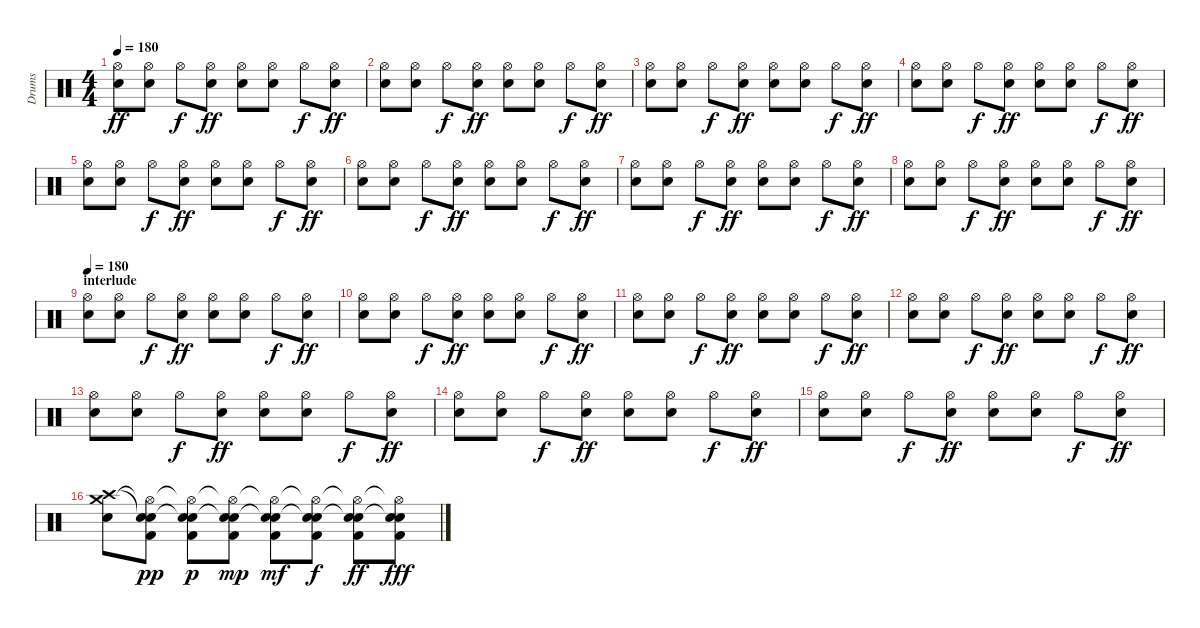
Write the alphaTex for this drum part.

\track ("Drums" "Drums") {instrument percussion}
\staff {score}
\articulation defaults
\ts (4 4)
\tempo 180
\clef neutral
\ks c
("Hi-Hat (open)" "Electric Snare (hit)").8{dy ff} ("Hi-Hat (open)" "Electric Snare (hit)").8 "Hi-Hat (open)".8{dy f} ("Hi-Hat (open)" "Electric Snare (hit)").8{dy ff} ("Hi-Hat (open)" "Electric Snare (hit)").8 ("Hi-Hat (open)" "Electric Snare (hit)").8 "Hi-Hat (open)".8{dy f} ("Hi-Hat (open)" "Electric Snare (hit)").8{dy ff} |
("Hi-Hat (open)" "Electric Snare (hit)").8 ("Hi-Hat (open)" "Electric Snare (hit)").8 "Hi-Hat (open)".8{dy f} ("Hi-Hat (open)" "Electric Snare (hit)").8{dy ff} ("Hi-Hat (open)" "Electric Snare (hit)").8 ("Hi-Hat (open)" "Electric Snare (hit)").8 "Hi-Hat (open)".8{dy f} ("Hi-Hat (open)" "Electric Snare (hit)").8{dy ff} |
("Hi-Hat (open)" "Electric Snare (hit)").8 ("Hi-Hat (open)" "Electric Snare (hit)").8 "Hi-Hat (open)".8{dy f} ("Hi-Hat (open)" "Electric Snare (hit)").8{dy ff} ("Hi-Hat (open)" "Electric Snare (hit)").8 ("Hi-Hat (open)" "Electric Snare (hit)").8 "Hi-Hat (open)".8{dy f} ("Hi-Hat (open)" "Electric Snare (hit)").8{dy ff} |
("Hi-Hat (open)" "Electric Snare (hit)").8 ("Hi-Hat (open)" "Electric Snare (hit)").8 "Hi-Hat (open)".8{dy f} ("Hi-Hat (open)" "Electric Snare (hit)").8{dy ff} ("Hi-Hat (open)" "Electric Snare (hit)").8 ("Hi-Hat (open)" "Electric Snare (hit)").8 "Hi-Hat (open)".8{dy f} ("Hi-Hat (open)" "Electric Snare (hit)").8{dy ff} |
("Hi-Hat (open)" "Electric Snare (hit)").8 ("Hi-Hat (open)" "Electric Snare (hit)").8 "Hi-Hat (open)".8{dy f} ("Hi-Hat (open)" "Electric Snare (hit)").8{dy ff} ("Hi-Hat (open)" "Electric Snare (hit)").8 ("Hi-Hat (open)" "Electric Snare (hit)").8 "Hi-Hat (open)".8{dy f} ("Hi-Hat (open)" "Electric Snare (hit)").8{dy ff} |
("Hi-Hat (open)" "Electric Snare (hit)").8 ("Hi-Hat (open)" "Electric Snare (hit)").8 "Hi-Hat (open)".8{dy f} ("Hi-Hat (open)" "Electric Snare (hit)").8{dy ff} ("Hi-Hat (open)" "Electric Snare (hit)").8 ("Hi-Hat (open)" "Electric Snare (hit)").8 "Hi-Hat (open)".8{dy f} ("Hi-Hat (open)" "Electric Snare (hit)").8{dy ff} |
("Hi-Hat (open)" "Electric Snare (hit)").8 ("Hi-Hat (open)" "Electric Snare (hit)").8 "Hi-Hat (open)".8{dy f} ("Hi-Hat (open)" "Electric Snare (hit)").8{dy ff} ("Hi-Hat (open)" "Electric Snare (hit)").8 ("Hi-Hat (open)" "Electric Snare (hit)").8 "Hi-Hat (open)".8{dy f} ("Hi-Hat (open)" "Electric Snare (hit)").8{dy ff} |
("Hi-Hat (open)" "Electric Snare (hit)").8 ("Hi-Hat (open)" "Electric Snare (hit)").8 "Hi-Hat (open)".8{dy f} ("Hi-Hat (open)" "Electric Snare (hit)").8{dy ff} ("Hi-Hat (open)" "Electric Snare (hit)").8 ("Hi-Hat (open)" "Electric Snare (hit)").8 "Hi-Hat (open)".8{dy f} ("Hi-Hat (open)" "Electric Snare (hit)").8{dy ff} |
\section ("" "interlude")
\tempo 180
("Hi-Hat (open)" "Electric Snare (hit)").8 ("Hi-Hat (open)" "Electric Snare (hit)").8 "Hi-Hat (open)".8{dy f} ("Hi-Hat (open)" "Electric Snare (hit)").8{dy ff} ("Hi-Hat (open)" "Electric Snare (hit)").8 ("Hi-Hat (open)" "Electric Snare (hit)").8 "Hi-Hat (open)".8{dy f} ("Hi-Hat (open)" "Electric Snare (hit)").8{dy ff} |
("Hi-Hat (open)" "Electric Snare (hit)").8 ("Hi-Hat (open)" "Electric Snare (hit)").8 "Hi-Hat (open)".8{dy f} ("Hi-Hat (open)" "Electric Snare (hit)").8{dy ff} ("Hi-Hat (open)" "Electric Snare (hit)").8 ("Hi-Hat (open)" "Electric Snare (hit)").8 "Hi-Hat (open)".8{dy f} ("Hi-Hat (open)" "Electric Snare (hit)").8{dy ff} |
("Hi-Hat (open)" "Electric Snare (hit)").8 ("Hi-Hat (open)" "Electric Snare (hit)").8 "Hi-Hat (open)".8{dy f} ("Hi-Hat (open)" "Electric Snare (hit)").8{dy ff} ("Hi-Hat (open)" "Electric Snare (hit)").8 ("Hi-Hat (open)" "Electric Snare (hit)").8 "Hi-Hat (open)".8{dy f} ("Hi-Hat (open)" "Electric Snare (hit)").8{dy ff} |
("Hi-Hat (open)" "Electric Snare (hit)").8 ("Hi-Hat (open)" "Electric Snare (hit)").8 "Hi-Hat (open)".8{dy f} ("Hi-Hat (open)" "Electric Snare (hit)").8{dy ff} ("Hi-Hat (open)" "Electric Snare (hit)").8 ("Hi-Hat (open)" "Electric Snare (hit)").8 "Hi-Hat (open)".8{dy f} ("Hi-Hat (open)" "Electric Snare (hit)").8{dy ff} |
("Hi-Hat (open)" "Electric Snare (hit)").8 ("Hi-Hat (open)" "Electric Snare (hit)").8 "Hi-Hat (open)".8{dy f} ("Hi-Hat (open)" "Electric Snare (hit)").8{dy ff} ("Hi-Hat (open)" "Electric Snare (hit)").8 ("Hi-Hat (open)" "Electric Snare (hit)").8 "Hi-Hat (open)".8{dy f} ("Hi-Hat (open)" "Electric Snare (hit)").8{dy ff} |
("Hi-Hat (open)" "Electric Snare (hit)").8 ("Hi-Hat (open)" "Electric Snare (hit)").8 "Hi-Hat (open)".8{dy f} ("Hi-Hat (open)" "Electric Snare (hit)").8{dy ff} ("Hi-Hat (open)" "Electric Snare (hit)").8 ("Hi-Hat (open)" "Electric Snare (hit)").8 "Hi-Hat (open)".8{dy f} ("Hi-Hat (open)" "Electric Snare (hit)").8{dy ff} |
("Hi-Hat (open)" "Electric Snare (hit)").8 ("Hi-Hat (open)" "Electric Snare (hit)").8 "Hi-Hat (open)".8{dy f} ("Hi-Hat (open)" "Electric Snare (hit)").8{dy ff} ("Hi-Hat (open)" "Electric Snare (hit)").8 ("Hi-Hat (open)" "Electric Snare (hit)").8 "Hi-Hat (open)".8{dy f} ("Hi-Hat (open)" "Electric Snare (hit)").8{dy ff} |
("Crash high (hit)" "Crash medium (hit)" "Electric Snare (hit)").8 ("Snare (hit)"{t} "Hi-Hat (open)"{t} "Electric Snare (hit)" "Kick (hit) 2").8{dy pp} ("Snare (hit)"{t} "Hi-Hat (open)"{t} "Electric Snare (hit)" "Kick (hit) 2").8{dy p} ("Snare (hit)"{t} "Hi-Hat (open)"{t} "Electric Snare (hit)" "Kick (hit) 2").8{dy mp} ("Snare (hit)"{t} "Hi-Hat (open)"{t} "Electric Snare (hit)" "Kick (hit) 2").8{dy mf} ("Snare (hit)"{t} "Hi-Hat (open)"{t} "Electric Snare (hit)" "Kick (hit) 2").8{dy f} ("Snare (hit)"{t} "Hi-Hat (open)"{t} "Electric Snare (hit)" "Kick (hit) 2").8{dy ff} ("Snare (hit)"{t} "Hi-Hat (open)"{t} "Electric Snare (hit)" "Kick (hit) 2").8{dy fff}
